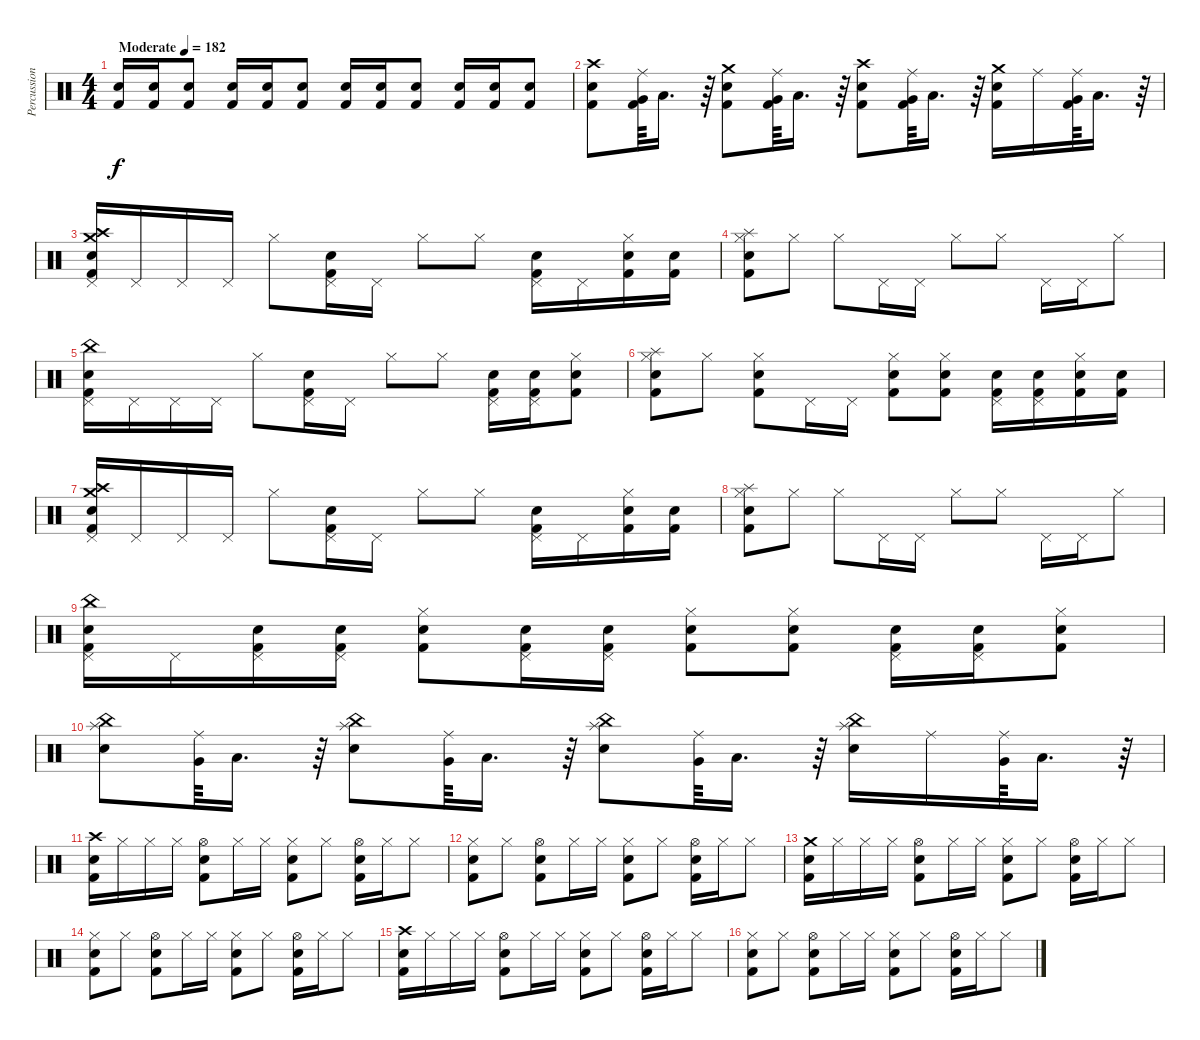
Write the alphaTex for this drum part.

\track ("Percussion" "Percussion") {instrument percussion}
\staff {score}
\articulation defaults
\ts (4 4)
\tempo (182 "Moderate")
\clef neutral
\ks c
("Snare (hit) 2" "Kick (hit) 2").16{dy f} ("Snare (hit) 2" "Kick (hit) 2").16 ("Snare (hit) 2" "Kick (hit) 2").8 ("Snare (hit) 2" "Kick (hit) 2").16 ("Snare (hit) 2" "Kick (hit) 2").16 ("Snare (hit) 2" "Kick (hit) 2").8 ("Snare (hit) 2" "Kick (hit) 2").16 ("Snare (hit) 2" "Kick (hit) 2").16 ("Snare (hit) 2" "Kick (hit) 2").8 ("Snare (hit) 2" "Kick (hit) 2").16 ("Snare (hit) 2" "Kick (hit) 2").16 ("Snare (hit) 2" "Kick (hit) 2").8 |
("Crash high (hit)" "Snare (hit) 2" "Kick (hit) 2").8 ("Ride (middle)" "Very Low Tom (hit)" "Kick (hit) 2").64 "Low Floor Tom (hit)".16{d} r.64 ("Crash medium (hit)" "Snare (hit) 2" "Kick (hit) 2").8 ("Ride (middle)" "Very Low Tom (hit)" "Kick (hit) 2").64 "Low Floor Tom (hit)".16{d} r.64 ("Crash high (hit)" "Snare (hit) 2" "Kick (hit) 2").8 ("Ride (middle)" "Very Low Tom (hit)" "Kick (hit) 2").64 "Low Floor Tom (hit)".16{d} r.64 ("Crash medium (hit)" "Snare (hit) 2" "Kick (hit) 2").16 "Ride (middle)".16 ("Ride (middle)" "Very Low Tom (hit)" "Kick (hit) 2").64 "Low Floor Tom (hit)".16{d} r.64 |
("Crash high (hit)" "Crash medium (hit)" "Pedal Hi-Hat (hit)" "Kick (hit) 2" "Snare (hit) 2").16 "Pedal Hi-Hat (hit)".16 "Pedal Hi-Hat (hit)".16 "Pedal Hi-Hat (hit)".16 "Hi-Hat (closed)".8 ("Pedal Hi-Hat (hit)" "Kick (hit) 2" "Snare (hit) 2").16 "Pedal Hi-Hat (hit)".16 "Hi-Hat (closed)".8 "Hi-Hat (closed)".8 ("Pedal Hi-Hat (hit)" "Kick (hit) 2" "Snare (hit) 2").16 "Pedal Hi-Hat (hit)".16 ("Hi-Hat (closed)" "Kick (hit) 2" "Snare (hit) 2").16 ("Kick (hit) 2" "Snare (hit) 2").16 |
("Splash (hit)" "Hi-Hat (closed)" "Kick (hit) 2" "Snare (hit) 2").8 "Hi-Hat (closed)".8 "Hi-Hat (closed)".8 "Pedal Hi-Hat (hit)".16 "Pedal Hi-Hat (hit)".16 "Hi-Hat (closed)".8 "Hi-Hat (closed)".8 "Pedal Hi-Hat (hit)".16 "Pedal Hi-Hat (hit)".16 "Hi-Hat (closed)".8 |
("China (hit)" "Pedal Hi-Hat (hit)" "Kick (hit) 2" "Snare (hit) 2").16 "Pedal Hi-Hat (hit)".16 "Pedal Hi-Hat (hit)".16 "Pedal Hi-Hat (hit)".16 "Hi-Hat (closed)".8 ("Pedal Hi-Hat (hit)" "Kick (hit) 2" "Snare (hit) 2").16 "Pedal Hi-Hat (hit)".16 "Hi-Hat (closed)".8 "Hi-Hat (closed)".8 ("Pedal Hi-Hat (hit)" "Kick (hit) 2" "Snare (hit) 2").16 ("Pedal Hi-Hat (hit)" "Kick (hit) 2" "Snare (hit) 2").16 ("Hi-Hat (closed)" "Kick (hit) 2" "Snare (hit) 2").8 |
("Splash (hit)" "Hi-Hat (closed)" "Kick (hit) 2" "Snare (hit) 2").8 "Hi-Hat (closed)".8 ("Hi-Hat (closed)" "Kick (hit) 2" "Snare (hit) 2").8 "Pedal Hi-Hat (hit)".16 "Pedal Hi-Hat (hit)".16 ("Hi-Hat (closed)" "Kick (hit) 2" "Snare (hit) 2").8 ("Hi-Hat (closed)" "Kick (hit) 2" "Snare (hit) 2").8 ("Pedal Hi-Hat (hit)" "Kick (hit) 2" "Snare (hit) 2").16 ("Pedal Hi-Hat (hit)" "Kick (hit) 2" "Snare (hit) 2").16 ("Hi-Hat (closed)" "Kick (hit) 2" "Snare (hit) 2").16 ("Kick (hit) 2" "Snare (hit) 2").16 |
("Crash high (hit)" "Crash medium (hit)" "Pedal Hi-Hat (hit)" "Kick (hit) 2" "Snare (hit) 2").16 "Pedal Hi-Hat (hit)".16 "Pedal Hi-Hat (hit)".16 "Pedal Hi-Hat (hit)".16 "Hi-Hat (closed)".8 ("Pedal Hi-Hat (hit)" "Kick (hit) 2" "Snare (hit) 2").16 "Pedal Hi-Hat (hit)".16 "Hi-Hat (closed)".8 "Hi-Hat (closed)".8 ("Pedal Hi-Hat (hit)" "Kick (hit) 2" "Snare (hit) 2").16 "Pedal Hi-Hat (hit)".16 ("Hi-Hat (closed)" "Kick (hit) 2" "Snare (hit) 2").16 ("Kick (hit) 2" "Snare (hit) 2").16 |
("Splash (hit)" "Hi-Hat (closed)" "Kick (hit) 2" "Snare (hit) 2").8 "Hi-Hat (closed)".8 "Hi-Hat (closed)".8 "Pedal Hi-Hat (hit)".16 "Pedal Hi-Hat (hit)".16 "Hi-Hat (closed)".8 "Hi-Hat (closed)".8 "Pedal Hi-Hat (hit)".16 "Pedal Hi-Hat (hit)".16 "Hi-Hat (closed)".8 |
("China (hit)" "Pedal Hi-Hat (hit)" "Kick (hit) 2" "Snare (hit) 2").16 "Pedal Hi-Hat (hit)".16 ("Pedal Hi-Hat (hit)" "Kick (hit) 2" "Snare (hit) 2").16 ("Pedal Hi-Hat (hit)" "Kick (hit) 2" "Snare (hit) 2").16 ("Hi-Hat (closed)" "Kick (hit) 2" "Snare (hit) 2").8 ("Pedal Hi-Hat (hit)" "Kick (hit) 2" "Snare (hit) 2").16 ("Pedal Hi-Hat (hit)" "Kick (hit) 2" "Snare (hit) 2").16 ("Hi-Hat (closed)" "Kick (hit) 2" "Snare (hit) 2").8 ("Hi-Hat (closed)" "Kick (hit) 2" "Snare (hit) 2").8 ("Pedal Hi-Hat (hit)" "Kick (hit) 2" "Snare (hit) 2").16 ("Pedal Hi-Hat (hit)" "Kick (hit) 2" "Snare (hit) 2").16 ("Hi-Hat (closed)" "Kick (hit) 2" "Snare (hit) 2").8 |
("Splash (hit)" "China (hit)" "Snare (hit) 2").8 ("Ride (middle)" "Very Low Tom (hit)").64 "Low Floor Tom (hit)".16{d} r.64 ("Splash (hit)" "China (hit)" "Snare (hit) 2").8 ("Ride (middle)" "Very Low Tom (hit)").64 "Low Floor Tom (hit)".16{d} r.64 ("Splash (hit)" "China (hit)" "Snare (hit) 2").8 ("Ride (middle)" "Very Low Tom (hit)").64 "Low Floor Tom (hit)".16{d} r.64 ("Splash (hit)" "China (hit)" "Snare (hit) 2").16 "Ride (middle)".16 ("Ride (middle)" "Very Low Tom (hit)").64 "Low Floor Tom (hit)".16{d} r.64 |
("Crash high (hit)" "Snare (hit) 2" "Kick (hit) 2").16 "Hi-Hat (closed)".16 "Hi-Hat (closed)".16 "Hi-Hat (closed)".16 ("Hi-Hat (open)" "Snare (hit) 2" "Kick (hit) 2").8 "Hi-Hat (closed)".16 "Hi-Hat (closed)".16 ("Hi-Hat (closed)" "Snare (hit) 2" "Kick (hit) 2").8 "Hi-Hat (closed)".8 ("Hi-Hat (open)" "Snare (hit) 2" "Kick (hit) 2").16 "Hi-Hat (closed)".16 "Hi-Hat (closed)".8 |
("Hi-Hat (closed)" "Snare (hit) 2" "Kick (hit) 2").8 "Hi-Hat (closed)".8 ("Hi-Hat (open)" "Snare (hit) 2" "Kick (hit) 2").8 "Hi-Hat (closed)".16 "Hi-Hat (closed)".16 ("Hi-Hat (closed)" "Snare (hit) 2" "Kick (hit) 2").8 "Hi-Hat (closed)".8 ("Hi-Hat (open)" "Snare (hit) 2" "Kick (hit) 2").16 "Hi-Hat (closed)".16 "Hi-Hat (closed)".8 |
("Crash medium (hit)" "Snare (hit) 2" "Kick (hit) 2").16 "Hi-Hat (closed)".16 "Hi-Hat (closed)".16 "Hi-Hat (closed)".16 ("Hi-Hat (open)" "Snare (hit) 2" "Kick (hit) 2").8 "Hi-Hat (closed)".16 "Hi-Hat (closed)".16 ("Hi-Hat (closed)" "Snare (hit) 2" "Kick (hit) 2").8 "Hi-Hat (closed)".8 ("Hi-Hat (open)" "Snare (hit) 2" "Kick (hit) 2").16 "Hi-Hat (closed)".16 "Hi-Hat (closed)".8 |
("Hi-Hat (closed)" "Snare (hit) 2" "Kick (hit) 2").8 "Hi-Hat (closed)".8 ("Hi-Hat (open)" "Snare (hit) 2" "Kick (hit) 2").8 "Hi-Hat (closed)".16 "Hi-Hat (closed)".16 ("Hi-Hat (closed)" "Snare (hit) 2" "Kick (hit) 2").8 "Hi-Hat (closed)".8 ("Hi-Hat (open)" "Snare (hit) 2" "Kick (hit) 2").16 "Hi-Hat (closed)".16 "Hi-Hat (closed)".8 |
("Crash high (hit)" "Snare (hit) 2" "Kick (hit) 2").16 "Hi-Hat (closed)".16 "Hi-Hat (closed)".16 "Hi-Hat (closed)".16 ("Hi-Hat (open)" "Snare (hit) 2" "Kick (hit) 2").8 "Hi-Hat (closed)".16 "Hi-Hat (closed)".16 ("Hi-Hat (closed)" "Snare (hit) 2" "Kick (hit) 2").8 "Hi-Hat (closed)".8 ("Hi-Hat (open)" "Snare (hit) 2" "Kick (hit) 2").16 "Hi-Hat (closed)".16 "Hi-Hat (closed)".8 |
("Hi-Hat (closed)" "Snare (hit) 2" "Kick (hit) 2").8 "Hi-Hat (closed)".8 ("Hi-Hat (open)" "Snare (hit) 2" "Kick (hit) 2").8 "Hi-Hat (closed)".16 "Hi-Hat (closed)".16 ("Hi-Hat (closed)" "Snare (hit) 2" "Kick (hit) 2").8 "Hi-Hat (closed)".8 ("Hi-Hat (open)" "Snare (hit) 2" "Kick (hit) 2").16 "Hi-Hat (closed)".16 "Hi-Hat (closed)".8
